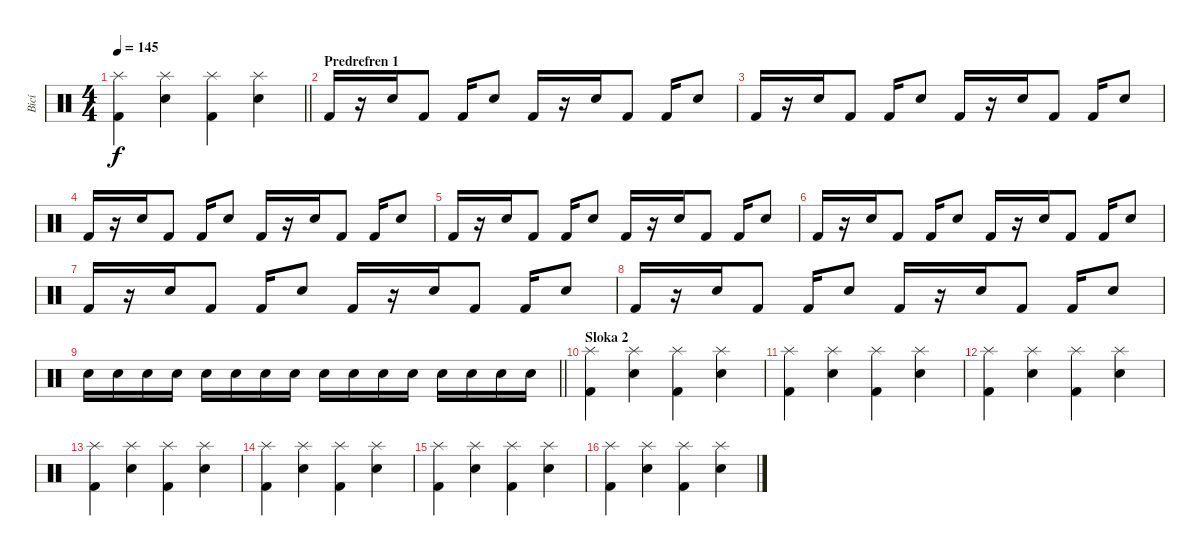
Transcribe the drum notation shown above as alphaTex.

\track ("Bicí" "Bicí") {instrument percussion}
\staff {score}
\articulation defaults
\ts (4 4)
\tempo 145
\clef neutral
\barLineRight lightlight
\ks c
("Kick (hit) 2" "Splash (hit)").4{dy f} ("Electric Snare (hit)" "Splash (hit)").4 ("Kick (hit) 2" "Splash (hit)").4 ("Electric Snare (hit)" "Splash (hit)").4 |
\section ("" "Predrefren 1")
"Kick (hit) 2".16 r.16 "Electric Snare (hit)".16 "Kick (hit) 2".8 "Kick (hit) 2".16 "Electric Snare (hit)".8 "Kick (hit) 2".16 r.16 "Electric Snare (hit)".16 "Kick (hit) 2".8 "Kick (hit) 2".16 "Electric Snare (hit)".8 |
"Kick (hit) 2".16 r.16 "Electric Snare (hit)".16 "Kick (hit) 2".8 "Kick (hit) 2".16 "Electric Snare (hit)".8 "Kick (hit) 2".16 r.16 "Electric Snare (hit)".16 "Kick (hit) 2".8 "Kick (hit) 2".16 "Electric Snare (hit)".8 |
"Kick (hit) 2".16 r.16 "Electric Snare (hit)".16 "Kick (hit) 2".8 "Kick (hit) 2".16 "Electric Snare (hit)".8 "Kick (hit) 2".16 r.16 "Electric Snare (hit)".16 "Kick (hit) 2".8 "Kick (hit) 2".16 "Electric Snare (hit)".8 |
"Kick (hit) 2".16 r.16 "Electric Snare (hit)".16 "Kick (hit) 2".8 "Kick (hit) 2".16 "Electric Snare (hit)".8 "Kick (hit) 2".16 r.16 "Electric Snare (hit)".16 "Kick (hit) 2".8 "Kick (hit) 2".16 "Electric Snare (hit)".8 |
"Kick (hit) 2".16 r.16 "Electric Snare (hit)".16 "Kick (hit) 2".8 "Kick (hit) 2".16 "Electric Snare (hit)".8 "Kick (hit) 2".16 r.16 "Electric Snare (hit)".16 "Kick (hit) 2".8 "Kick (hit) 2".16 "Electric Snare (hit)".8 |
"Kick (hit) 2".16 r.16 "Electric Snare (hit)".16 "Kick (hit) 2".8 "Kick (hit) 2".16 "Electric Snare (hit)".8 "Kick (hit) 2".16 r.16 "Electric Snare (hit)".16 "Kick (hit) 2".8 "Kick (hit) 2".16 "Electric Snare (hit)".8 |
"Kick (hit) 2".16 r.16 "Electric Snare (hit)".16 "Kick (hit) 2".8 "Kick (hit) 2".16 "Electric Snare (hit)".8 "Kick (hit) 2".16 r.16 "Electric Snare (hit)".16 "Kick (hit) 2".8 "Kick (hit) 2".16 "Electric Snare (hit)".8 |
\barLineRight lightlight "Electric Snare (hit)".16 "Electric Snare (hit)".16 "Electric Snare (hit)".16 "Electric Snare (hit)".16 "Electric Snare (hit)".16 "Electric Snare (hit)".16 "Electric Snare (hit)".16 "Electric Snare (hit)".16 "Electric Snare (hit)".16 "Electric Snare (hit)".16 "Electric Snare (hit)".16 "Electric Snare (hit)".16 "Electric Snare (hit)".16 "Electric Snare (hit)".16 "Electric Snare (hit)".16 "Electric Snare (hit)".16
|
\section ("" "Sloka 2")
("Kick (hit) 2" "Splash (hit)").4 ("Electric Snare (hit)" "Splash (hit)").4 ("Kick (hit) 2" "Splash (hit)").4 ("Electric Snare (hit)" "Splash (hit)").4 |
("Kick (hit) 2" "Splash (hit)").4 ("Electric Snare (hit)" "Splash (hit)").4 ("Kick (hit) 2" "Splash (hit)").4 ("Electric Snare (hit)" "Splash (hit)").4 |
("Kick (hit) 2" "Splash (hit)").4 ("Electric Snare (hit)" "Splash (hit)").4 ("Kick (hit) 2" "Splash (hit)").4 ("Electric Snare (hit)" "Splash (hit)").4 |
("Kick (hit) 2" "Splash (hit)").4 ("Electric Snare (hit)" "Splash (hit)").4 ("Kick (hit) 2" "Splash (hit)").4 ("Electric Snare (hit)" "Splash (hit)").4 |
("Kick (hit) 2" "Splash (hit)").4 ("Electric Snare (hit)" "Splash (hit)").4 ("Kick (hit) 2" "Splash (hit)").4 ("Electric Snare (hit)" "Splash (hit)").4 |
("Kick (hit) 2" "Splash (hit)").4 ("Electric Snare (hit)" "Splash (hit)").4 ("Kick (hit) 2" "Splash (hit)").4 ("Electric Snare (hit)" "Splash (hit)").4 |
("Kick (hit) 2" "Splash (hit)").4 ("Electric Snare (hit)" "Splash (hit)").4 ("Kick (hit) 2" "Splash (hit)").4 ("Electric Snare (hit)" "Splash (hit)").4
